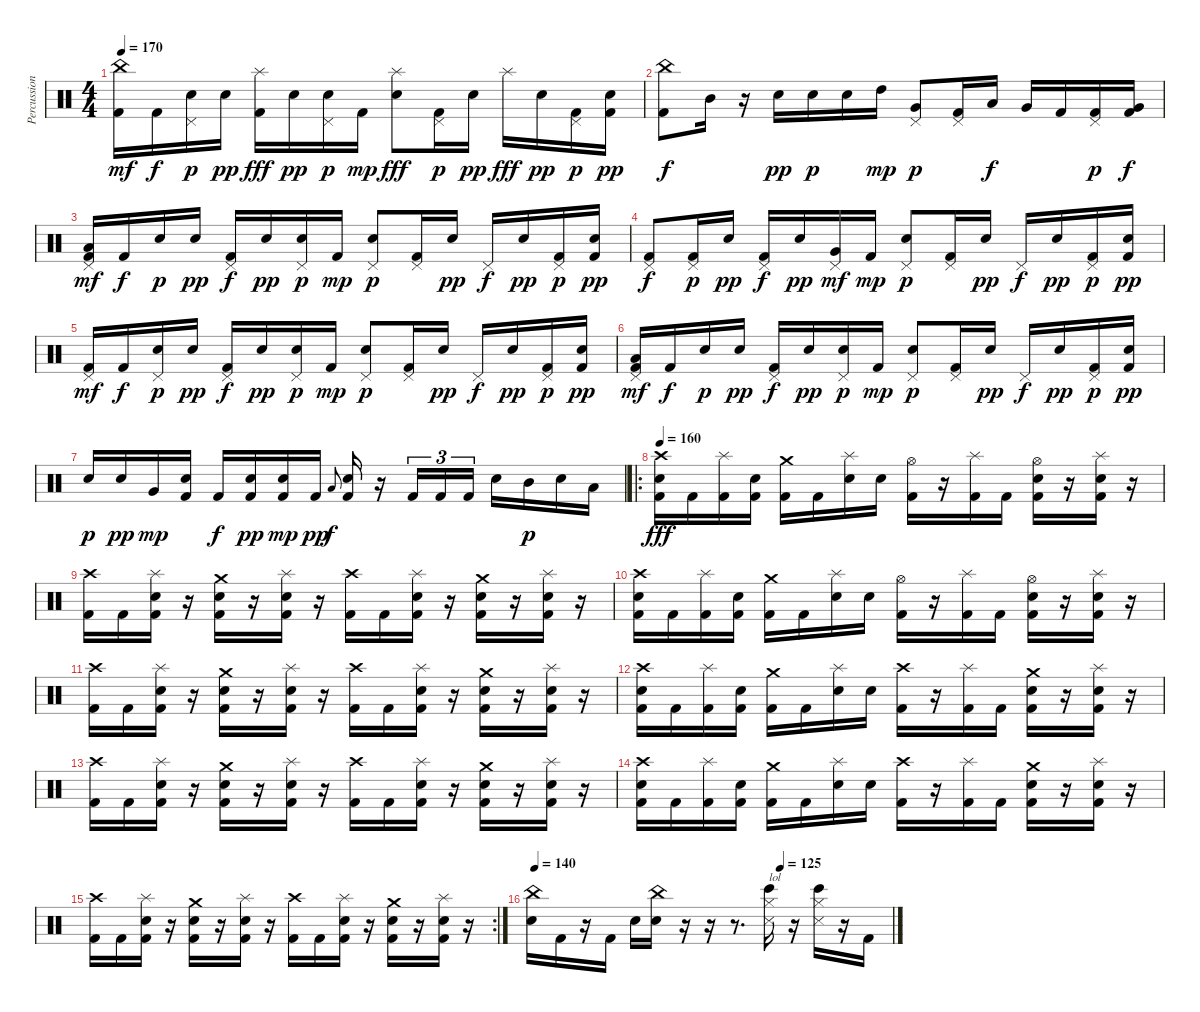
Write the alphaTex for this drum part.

\track ("Percussion" "Percussion") {instrument percussion}
\staff {score}
\articulation defaults
\ts (4 4)
\tempo 170
\clef neutral
\ks c
("China (hit)" "Kick (hit) 2").16{dy mf} "Kick (hit) 2".16{dy f} ("Pedal Hi-Hat (hit)" "Electric Snare (hit)").16{dy p} "Electric Snare (hit)".16{dy pp} ("Splash (hit)" "Kick (hit) 2").16{dy fff} "Electric Snare (hit)".16{dy pp} ("Pedal Hi-Hat (hit)" "Electric Snare (hit)").16{dy p} "Kick (hit) 2".16{dy mp} ("Splash (hit)" "Electric Snare (hit)").8{dy fff} ("Pedal Hi-Hat (hit)" "Kick (hit) 2").16{dy p} "Electric Snare (hit)".16{dy pp} "Splash (hit)".16{dy fff} "Electric Snare (hit)".16{dy pp} ("Pedal Hi-Hat (hit)" "Kick (hit) 2").16{dy p} ("Electric Snare (hit)" "Kick (hit) 2").16{dy pp} |
("China (hit)" "Kick (hit) 2").8{dy f} "Mid Tom (hit)".16 r.16 "Electric Snare (hit)".16{dy pp} "Electric Snare (hit)".16{dy p} "Electric Snare (hit)".16 "High Tom (hit)".16{dy mp} ("Pedal Hi-Hat (hit)" "Very Low Tom (hit)").8{dy p} ("Pedal Hi-Hat (hit)" "Kick (hit) 2").16 "Low Tom (hit)".16{dy f} "Very Low Tom (hit)".16 "Kick (hit) 2".16 ("Pedal Hi-Hat (hit)" "Kick (hit) 2").16{dy p} ("Very Low Tom (hit)" "Kick (hit) 2").16{dy f} |
("Pedal Hi-Hat (hit)" "Low Floor Tom (hit)" "Kick (hit) 2").16{dy mf} "Kick (hit) 2".16{dy f} "Electric Snare (hit)".16{dy p} "Electric Snare (hit)".16{dy pp} ("Pedal Hi-Hat (hit)" "Kick (hit) 2").16{dy f} "Electric Snare (hit)".16{dy pp} ("Pedal Hi-Hat (hit)" "Electric Snare (hit)").16{dy p} "Kick (hit) 2".16{dy mp} ("Pedal Hi-Hat (hit)" "Electric Snare (hit)").8{dy p} ("Pedal Hi-Hat (hit)" "Kick (hit) 2").16 "Electric Snare (hit)".16{dy pp} "Pedal Hi-Hat (hit)".16{dy f} "Electric Snare (hit)".16{dy pp} ("Pedal Hi-Hat (hit)" "Kick (hit) 2").16{dy p} ("Electric Snare (hit)" "Kick (hit) 2").16{dy pp} |
("Pedal Hi-Hat (hit)" "Kick (hit) 2").8{dy f} ("Pedal Hi-Hat (hit)" "Kick (hit) 2").16{dy p} "Electric Snare (hit)".16{dy pp} ("Pedal Hi-Hat (hit)" "Kick (hit) 2").16{dy f} "Electric Snare (hit)".16{dy pp} ("Pedal Hi-Hat (hit)" "Very Low Tom (hit)").16{dy mf} "Kick (hit) 2".16{dy mp} ("Pedal Hi-Hat (hit)" "Electric Snare (hit)").8{dy p} ("Pedal Hi-Hat (hit)" "Kick (hit) 2").16 "Electric Snare (hit)".16{dy pp} "Pedal Hi-Hat (hit)".16{dy f} "Electric Snare (hit)".16{dy pp} ("Pedal Hi-Hat (hit)" "Kick (hit) 2").16{dy p} ("Electric Snare (hit)" "Kick (hit) 2").16{dy pp} |
("Pedal Hi-Hat (hit)" "Kick (hit) 2").16{dy mf} "Kick (hit) 2".16{dy f} ("Pedal Hi-Hat (hit)" "Electric Snare (hit)").16{dy p} "Electric Snare (hit)".16{dy pp} ("Pedal Hi-Hat (hit)" "Kick (hit) 2").16{dy f} "Electric Snare (hit)".16{dy pp} ("Pedal Hi-Hat (hit)" "Electric Snare (hit)").16{dy p} "Kick (hit) 2".16{dy mp} ("Pedal Hi-Hat (hit)" "Electric Snare (hit)").8{dy p} ("Pedal Hi-Hat (hit)" "Kick (hit) 2").16 "Electric Snare (hit)".16{dy pp} "Pedal Hi-Hat (hit)".16{dy f} "Electric Snare (hit)".16{dy pp} ("Pedal Hi-Hat (hit)" "Kick (hit) 2").16{dy p} ("Electric Snare (hit)" "Kick (hit) 2").16{dy pp} |
("Pedal Hi-Hat (hit)" "Low Floor Tom (hit)" "Kick (hit) 2").16{dy mf} "Kick (hit) 2".16{dy f} "Electric Snare (hit)".16{dy p} "Electric Snare (hit)".16{dy pp} ("Pedal Hi-Hat (hit)" "Kick (hit) 2").16{dy f} "Electric Snare (hit)".16{dy pp} ("Pedal Hi-Hat (hit)" "Electric Snare (hit)").16{dy p} "Kick (hit) 2".16{dy mp} ("Pedal Hi-Hat (hit)" "Electric Snare (hit)").8{dy p} ("Pedal Hi-Hat (hit)" "Kick (hit) 2").16 "Electric Snare (hit)".16{dy pp} "Pedal Hi-Hat (hit)".16{dy f} "Electric Snare (hit)".16{dy pp} ("Pedal Hi-Hat (hit)" "Kick (hit) 2").16{dy p} ("Electric Snare (hit)" "Kick (hit) 2").16{dy pp} |
"Electric Snare (hit)".16{dy p} "Electric Snare (hit)".16{dy pp} "Very Low Tom (hit)".16{dy mp} ("Electric Snare (hit)" "Kick (hit) 2").16 "Kick (hit) 2".16{dy f} ("Electric Snare (hit)" "Kick (hit) 2").16{dy pp} ("Electric Snare (hit)" "Kick (hit) 2").16{dy mp} "Kick (hit) 2".16{dy pp} "Low Floor Tom (hit)".8{gr onbeat dy f} ("Electric Snare (hit)" "Kick (hit) 2").16 r.16 "Kick (hit) 2".16{tu (3 2)} "Kick (hit) 2".16{tu (3 2)} "Kick (hit) 2".16{tu (3 2)} "Electric Snare (hit)".16 "Mid Tom (hit)".16{dy p} "Electric Snare (hit)".16 "Low Tom (hit)".16 |
\ro
\tempo 160
("Crash high (hit)" "Electric Snare (hit)" "Kick (hit) 2").16{dy fff} "Kick (hit) 2".16 ("Splash (hit)" "Kick (hit) 2").16 ("Electric Snare (hit)" "Kick (hit) 2").16 ("Crash medium (hit)" "Kick (hit) 2").16 "Kick (hit) 2".16 ("Splash (hit)" "Electric Snare (hit)").16 "Electric Snare (hit)".16 ("Hi-Hat (open)" "Kick (hit) 2").16 r.16 ("Splash (hit)" "Kick (hit) 2").16 "Kick (hit) 2".16 ("Hi-Hat (open)" "Electric Snare (hit)" "Kick (hit) 2").16 r.16 ("Splash (hit)" "Electric Snare (hit)" "Kick (hit) 2").16 r.16 |
("Crash high (hit)" "Kick (hit) 2").16 "Kick (hit) 2".16 ("Splash (hit)" "Electric Snare (hit)" "Kick (hit) 2").16 r.16 ("Crash medium (hit)" "Electric Snare (hit)" "Kick (hit) 2").16 r.16 ("Splash (hit)" "Electric Snare (hit)" "Kick (hit) 2").16 r.16 ("Crash high (hit)" "Kick (hit) 2").16 "Kick (hit) 2".16 ("Splash (hit)" "Electric Snare (hit)" "Kick (hit) 2").16 r.16 ("Crash medium (hit)" "Electric Snare (hit)" "Kick (hit) 2").16 r.16 ("Splash (hit)" "Electric Snare (hit)" "Kick (hit) 2").16 r.16 |
("Crash high (hit)" "Electric Snare (hit)" "Kick (hit) 2").16 "Kick (hit) 2".16 ("Splash (hit)" "Kick (hit) 2").16 ("Electric Snare (hit)" "Kick (hit) 2").16 ("Crash medium (hit)" "Kick (hit) 2").16 "Kick (hit) 2".16 ("Splash (hit)" "Electric Snare (hit)").16 "Electric Snare (hit)".16 ("Hi-Hat (open)" "Kick (hit) 2").16 r.16 ("Splash (hit)" "Kick (hit) 2").16 "Kick (hit) 2".16 ("Hi-Hat (open)" "Electric Snare (hit)" "Kick (hit) 2").16 r.16 ("Splash (hit)" "Electric Snare (hit)" "Kick (hit) 2").16 r.16 |
("Crash high (hit)" "Kick (hit) 2").16 "Kick (hit) 2".16 ("Splash (hit)" "Electric Snare (hit)" "Kick (hit) 2").16 r.16 ("Crash medium (hit)" "Electric Snare (hit)" "Kick (hit) 2").16 r.16 ("Splash (hit)" "Electric Snare (hit)" "Kick (hit) 2").16 r.16 ("Crash high (hit)" "Kick (hit) 2").16 "Kick (hit) 2".16 ("Splash (hit)" "Electric Snare (hit)" "Kick (hit) 2").16 r.16 ("Crash medium (hit)" "Electric Snare (hit)" "Kick (hit) 2").16 r.16 ("Splash (hit)" "Electric Snare (hit)" "Kick (hit) 2").16 r.16 |
("Crash high (hit)" "Electric Snare (hit)" "Kick (hit) 2").16 "Kick (hit) 2".16 ("Splash (hit)" "Kick (hit) 2").16 ("Electric Snare (hit)" "Kick (hit) 2").16 ("Crash medium (hit)" "Kick (hit) 2").16 "Kick (hit) 2".16 ("Splash (hit)" "Electric Snare (hit)").16 "Electric Snare (hit)".16 ("Crash high (hit)" "Kick (hit) 2").16 r.16 ("Splash (hit)" "Kick (hit) 2").16 "Kick (hit) 2".16 ("Crash medium (hit)" "Electric Snare (hit)" "Kick (hit) 2").16 r.16 ("Splash (hit)" "Electric Snare (hit)" "Kick (hit) 2").16 r.16 |
("Crash high (hit)" "Kick (hit) 2").16 "Kick (hit) 2".16 ("Splash (hit)" "Electric Snare (hit)" "Kick (hit) 2").16 r.16 ("Crash medium (hit)" "Electric Snare (hit)" "Kick (hit) 2").16 r.16 ("Splash (hit)" "Electric Snare (hit)" "Kick (hit) 2").16 r.16 ("Crash high (hit)" "Kick (hit) 2").16 "Kick (hit) 2".16 ("Splash (hit)" "Electric Snare (hit)" "Kick (hit) 2").16 r.16 ("Crash medium (hit)" "Electric Snare (hit)" "Kick (hit) 2").16 r.16 ("Splash (hit)" "Electric Snare (hit)" "Kick (hit) 2").16 r.16 |
("Crash high (hit)" "Electric Snare (hit)" "Kick (hit) 2").16 "Kick (hit) 2".16 ("Splash (hit)" "Kick (hit) 2").16 ("Electric Snare (hit)" "Kick (hit) 2").16 ("Crash medium (hit)" "Kick (hit) 2").16 "Kick (hit) 2".16 ("Splash (hit)" "Electric Snare (hit)").16 "Electric Snare (hit)".16 ("Crash high (hit)" "Kick (hit) 2").16 r.16 ("Splash (hit)" "Kick (hit) 2").16 "Kick (hit) 2".16 ("Crash medium (hit)" "Electric Snare (hit)" "Kick (hit) 2").16 r.16 ("Splash (hit)" "Electric Snare (hit)" "Kick (hit) 2").16 r.16 |
\rc 2
("Crash high (hit)" "Kick (hit) 2").16 "Kick (hit) 2".16 ("Splash (hit)" "Electric Snare (hit)" "Kick (hit) 2").16 r.16 ("Crash medium (hit)" "Electric Snare (hit)" "Kick (hit) 2").16 r.16 ("Splash (hit)" "Electric Snare (hit)" "Kick (hit) 2").16 r.16 ("Crash high (hit)" "Kick (hit) 2").16 "Kick (hit) 2".16 ("Splash (hit)" "Electric Snare (hit)" "Kick (hit) 2").16 r.16 ("Crash medium (hit)" "Electric Snare (hit)" "Kick (hit) 2").16 r.16 ("Splash (hit)" "Electric Snare (hit)" "Kick (hit) 2").16 r.16 |
\tempo 140
\tempo (125 0.6875)
("China (hit)" "Electric Snare (hit)").16 "Kick (hit) 2".16 r.16 "Kick (hit) 2".16 "Electric Snare (hit)".16 ("China (hit)" "Electric Snare (hit)").16 r.16 r.16 r.8{d} ("Bongo High (hit)" "Hi-Hat (closed)" "Metronome (hit)").16{txt "lol"} r.16 ("Bongo High (hit)" "Hi-Hat (closed)" "Metronome (hit)").16 r.16 "Kick (hit) 2".16
